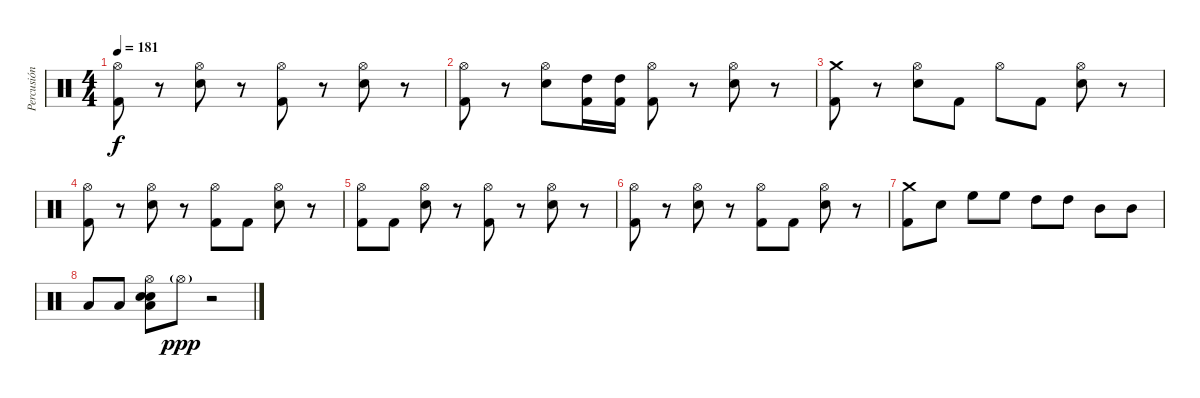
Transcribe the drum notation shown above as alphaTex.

\track ("Percusión" "Percusión") {instrument percussion}
\staff {score}
\articulation defaults
\ts (4 4)
\tempo 181
\clef neutral
\ks c
("Hi-Hat (open)" "Kick (hit) 2").8{dy f} r.8 ("Hi-Hat (open)" "Electric Snare (hit)").8 r.8 ("Hi-Hat (open)" "Kick (hit) 2").8 r.8 ("Hi-Hat (open)" "Electric Snare (hit)").8 r.8 |
("Hi-Hat (open)" "Kick (hit) 2").8 r.8 ("Hi-Hat (open)" "Electric Snare (hit)").8 ("High Tom (hit)" "Kick (hit) 2").16 ("High Tom (hit)" "Kick (hit) 2").16 ("Hi-Hat (open)" "Kick (hit) 2").8 r.8 ("Hi-Hat (open)" "Electric Snare (hit)").8 r.8 |
("Crash medium (hit)" "Kick (hit) 2").8 r.8 ("Hi-Hat (open)" "Electric Snare (hit)").8 "Kick (hit) 2".8 "Hi-Hat (open)".8 "Kick (hit) 2".8 ("Hi-Hat (open)" "Electric Snare (hit)").8 r.8 |
("Hi-Hat (open)" "Kick (hit) 2").8 r.8 ("Hi-Hat (open)" "Electric Snare (hit)").8 r.8 ("Hi-Hat (open)" "Kick (hit) 2").8 "Kick (hit) 2".8 ("Hi-Hat (open)" "Electric Snare (hit)").8 r.8 |
("Hi-Hat (open)" "Kick (hit) 2").8 "Kick (hit) 2".8 ("Hi-Hat (open)" "Electric Snare (hit)").8 r.8 ("Hi-Hat (open)" "Kick (hit) 2").8 r.8 ("Hi-Hat (open)" "Electric Snare (hit)").8 r.8 |
("Hi-Hat (open)" "Kick (hit) 2").8 r.8 ("Hi-Hat (open)" "Electric Snare (hit)").8 r.8 ("Hi-Hat (open)" "Kick (hit) 2").8 "Kick (hit) 2".8 ("Hi-Hat (open)" "Electric Snare (hit)").8 r.8 |
("Crash medium (hit)" "Kick (hit) 2").8 "Electric Snare (hit)".8 "High Floor Tom (hit)".8 "High Floor Tom (hit)".8 "High Tom (hit)".8 "High Tom (hit)".8 "Mid Tom (hit)".8 "Mid Tom (hit)".8 |
"Low Tom (hit)".8 "Low Tom (hit)".8 ("Hi-Hat (open)" "Snare (hit) 2" "Electric Snare (hit)" "Low Tom (hit)").8 "Hi-Hat (open)"{g}.8{dy ppp} r.2
